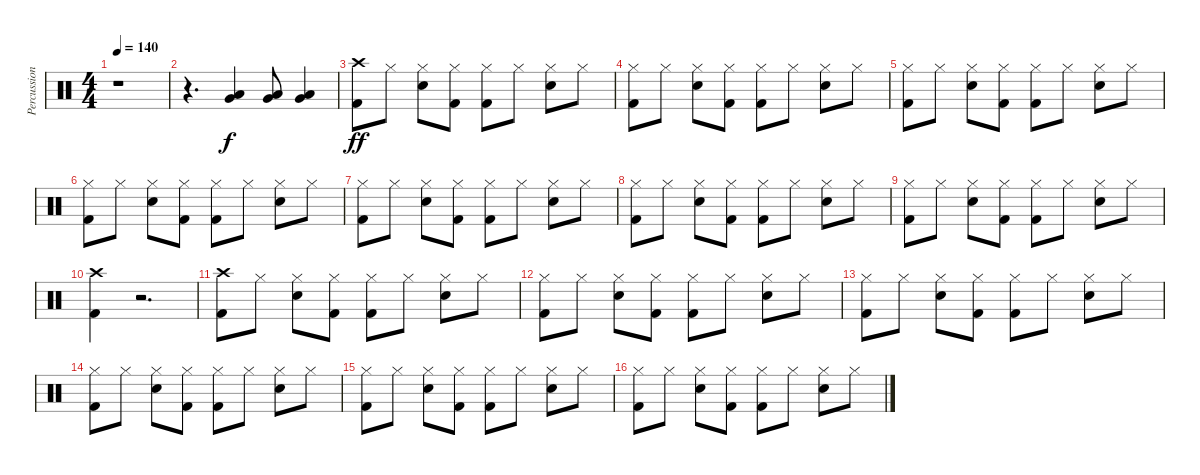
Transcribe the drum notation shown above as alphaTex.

\track ("Percussion" "Percussion") {instrument percussion}
\staff {score}
\articulation defaults
\ts (4 4)
\tempo 140
\clef neutral
\ks c
r.1{dy f} |
r.4{d} ("Low Tom (hit)" "Very Low Tom (hit)").4 ("Low Tom (hit)" "Very Low Tom (hit)").8 ("Low Tom (hit)" "Very Low Tom (hit)").4 |
("Crash high (hit)" "Kick (hit) 2").8{dy ff} "Hi-Hat (closed)".8 ("Hi-Hat (closed)" "Snare (hit) 2").8 ("Hi-Hat (closed)" "Kick (hit) 2").8 ("Hi-Hat (closed)" "Kick (hit) 2").8 "Hi-Hat (closed)".8 ("Hi-Hat (closed)" "Snare (hit) 2").8 "Hi-Hat (closed)".8 |
("Hi-Hat (closed)" "Kick (hit) 2").8 "Hi-Hat (closed)".8 ("Hi-Hat (closed)" "Snare (hit) 2").8 ("Hi-Hat (closed)" "Kick (hit) 2").8 ("Hi-Hat (closed)" "Kick (hit) 2").8 "Hi-Hat (closed)".8 ("Hi-Hat (closed)" "Snare (hit) 2").8 "Hi-Hat (closed)".8 |
("Hi-Hat (closed)" "Kick (hit) 2").8 "Hi-Hat (closed)".8 ("Hi-Hat (closed)" "Snare (hit) 2").8 ("Hi-Hat (closed)" "Kick (hit) 2").8 ("Hi-Hat (closed)" "Kick (hit) 2").8 "Hi-Hat (closed)".8 ("Hi-Hat (closed)" "Snare (hit) 2").8 "Hi-Hat (closed)".8 |
("Hi-Hat (closed)" "Kick (hit) 2").8 "Hi-Hat (closed)".8 ("Hi-Hat (closed)" "Snare (hit) 2").8 ("Hi-Hat (closed)" "Kick (hit) 2").8 ("Hi-Hat (closed)" "Kick (hit) 2").8 "Hi-Hat (closed)".8 ("Hi-Hat (closed)" "Snare (hit) 2").8 "Hi-Hat (closed)".8 |
("Hi-Hat (closed)" "Kick (hit) 2").8 "Hi-Hat (closed)".8 ("Hi-Hat (closed)" "Snare (hit) 2").8 ("Hi-Hat (closed)" "Kick (hit) 2").8 ("Hi-Hat (closed)" "Kick (hit) 2").8 "Hi-Hat (closed)".8 ("Hi-Hat (closed)" "Snare (hit) 2").8 "Hi-Hat (closed)".8 |
("Hi-Hat (closed)" "Kick (hit) 2").8 "Hi-Hat (closed)".8 ("Hi-Hat (closed)" "Snare (hit) 2").8 ("Hi-Hat (closed)" "Kick (hit) 2").8 ("Hi-Hat (closed)" "Kick (hit) 2").8 "Hi-Hat (closed)".8 ("Hi-Hat (closed)" "Snare (hit) 2").8 "Hi-Hat (closed)".8 |
("Hi-Hat (closed)" "Kick (hit) 2").8 "Hi-Hat (closed)".8 ("Hi-Hat (closed)" "Snare (hit) 2").8 ("Hi-Hat (closed)" "Kick (hit) 2").8 ("Hi-Hat (closed)" "Kick (hit) 2").8 "Hi-Hat (closed)".8 ("Hi-Hat (closed)" "Snare (hit) 2").8 "Hi-Hat (closed)".8 |
("Crash high (hit)" "Kick (hit) 2").4 r.2{d} |
("Crash high (hit)" "Kick (hit) 2").8 "Hi-Hat (closed)".8 ("Hi-Hat (closed)" "Snare (hit) 2").8 ("Hi-Hat (closed)" "Kick (hit) 2").8 ("Hi-Hat (closed)" "Kick (hit) 2").8 "Hi-Hat (closed)".8 ("Hi-Hat (closed)" "Snare (hit) 2").8 "Hi-Hat (closed)".8 |
("Hi-Hat (closed)" "Kick (hit) 2").8 "Hi-Hat (closed)".8 ("Hi-Hat (closed)" "Snare (hit) 2").8 ("Hi-Hat (closed)" "Kick (hit) 2").8 ("Hi-Hat (closed)" "Kick (hit) 2").8 "Hi-Hat (closed)".8 ("Hi-Hat (closed)" "Snare (hit) 2").8 "Hi-Hat (closed)".8 |
("Hi-Hat (closed)" "Kick (hit) 2").8 "Hi-Hat (closed)".8 ("Hi-Hat (closed)" "Snare (hit) 2").8 ("Hi-Hat (closed)" "Kick (hit) 2").8 ("Hi-Hat (closed)" "Kick (hit) 2").8 "Hi-Hat (closed)".8 ("Hi-Hat (closed)" "Snare (hit) 2").8 "Hi-Hat (closed)".8 |
("Hi-Hat (closed)" "Kick (hit) 2").8 "Hi-Hat (closed)".8 ("Hi-Hat (closed)" "Snare (hit) 2").8 ("Hi-Hat (closed)" "Kick (hit) 2").8 ("Hi-Hat (closed)" "Kick (hit) 2").8 "Hi-Hat (closed)".8 ("Hi-Hat (closed)" "Snare (hit) 2").8 "Hi-Hat (closed)".8 |
("Hi-Hat (closed)" "Kick (hit) 2").8 "Hi-Hat (closed)".8 ("Hi-Hat (closed)" "Snare (hit) 2").8 ("Hi-Hat (closed)" "Kick (hit) 2").8 ("Hi-Hat (closed)" "Kick (hit) 2").8 "Hi-Hat (closed)".8 ("Hi-Hat (closed)" "Snare (hit) 2").8 "Hi-Hat (closed)".8 |
("Hi-Hat (closed)" "Kick (hit) 2").8 "Hi-Hat (closed)".8 ("Hi-Hat (closed)" "Snare (hit) 2").8 ("Hi-Hat (closed)" "Kick (hit) 2").8 ("Hi-Hat (closed)" "Kick (hit) 2").8 "Hi-Hat (closed)".8 ("Hi-Hat (closed)" "Snare (hit) 2").8 "Hi-Hat (closed)".8
